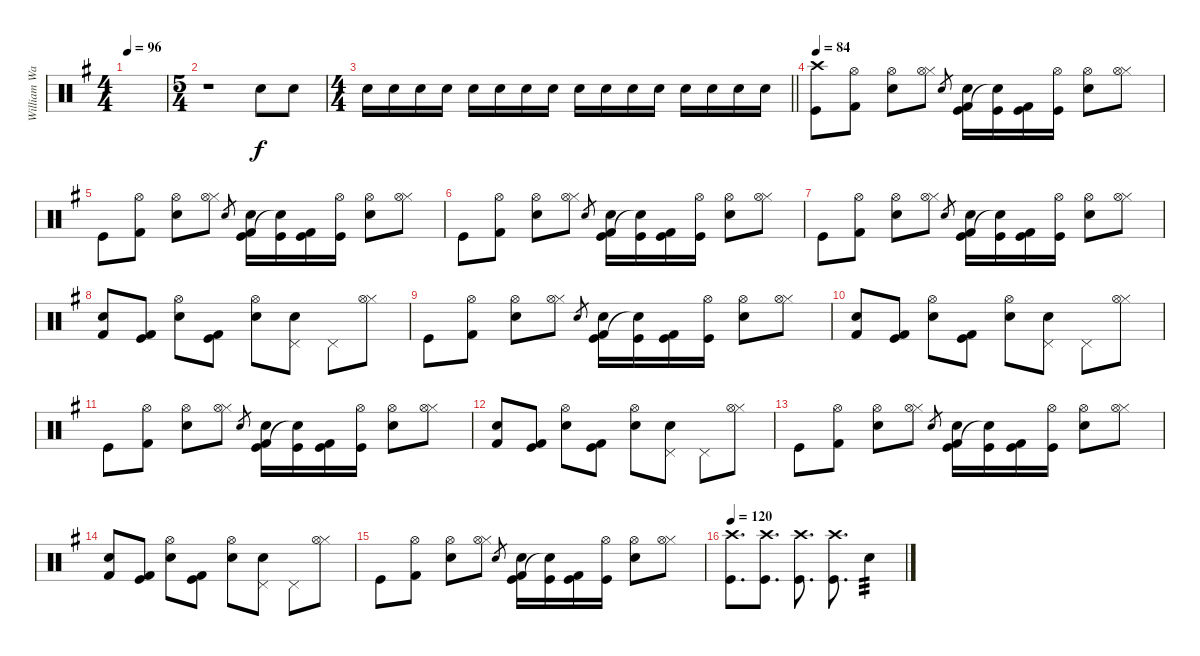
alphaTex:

\track ("William Ward" "William Wa") {instrument percussion}
\staff {score}
\articulation defaults
\ts (4 4)
\tempo 96
\clef neutral
\ks g
|
\ts (5 4)
r.1 "Electric Snare (hit)".8 "Electric Snare (hit)".8 |
\ts (4 4)
\barLineRight lightlight "Electric Snare (hit)".16 "Electric Snare (hit)".16 "Electric Snare (hit)".16 "Electric Snare (hit)".16 "Electric Snare (hit)".16 "Electric Snare (hit)".16 "Electric Snare (hit)".16 "Electric Snare (hit)".16 "Electric Snare (hit)".16 "Electric Snare (hit)".16 "Electric Snare (hit)".16 "Electric Snare (hit)".16 "Electric Snare (hit)".16 "Electric Snare (hit)".16 "Electric Snare (hit)".16 "Electric Snare (hit)".16
|
\tempo 84
("Kick (hit)" "Crash high (hit)").8 ("Kick (hit) 2" "Hi-Hat (open)").8 ("Hi-Hat (open)" "Electric Snare (hit)").8 ("Hi-Hat (closed)" "Hi-Hat (open)").8 "Electric Snare (hit)".8{gr} ("Kick (hit) 2" "Kick (hit)" "Electric Snare (hit)").16 ("Kick (hit)" "Electric Snare (hit)"{t}).16 ("Kick (hit) 2" "Kick (hit)").16 ("Hi-Hat (open)" "Kick (hit)").16 ("Hi-Hat (open)" "Electric Snare (hit)").8 ("Hi-Hat (closed)" "Hi-Hat (open)").8 |
"Kick (hit)".8 ("Kick (hit) 2" "Hi-Hat (open)").8 ("Hi-Hat (open)" "Electric Snare (hit)").8 ("Hi-Hat (closed)" "Hi-Hat (open)").8 "Electric Snare (hit)".8{gr} ("Kick (hit) 2" "Kick (hit)" "Electric Snare (hit)").16 ("Kick (hit)" "Electric Snare (hit)"{t}).16 ("Kick (hit) 2" "Kick (hit)").16 ("Hi-Hat (open)" "Kick (hit)").16 ("Hi-Hat (open)" "Electric Snare (hit)").8 ("Hi-Hat (closed)" "Hi-Hat (open)").8 |
"Kick (hit)".8 ("Kick (hit) 2" "Hi-Hat (open)").8 ("Hi-Hat (open)" "Electric Snare (hit)").8 ("Hi-Hat (closed)" "Hi-Hat (open)").8 "Electric Snare (hit)".8{gr} ("Kick (hit) 2" "Kick (hit)" "Electric Snare (hit)").16 ("Kick (hit)" "Electric Snare (hit)"{t}).16 ("Kick (hit) 2" "Kick (hit)").16 ("Hi-Hat (open)" "Kick (hit)").16 ("Hi-Hat (open)" "Electric Snare (hit)").8 ("Hi-Hat (closed)" "Hi-Hat (open)").8 |
"Kick (hit)".8 ("Kick (hit) 2" "Hi-Hat (open)").8 ("Hi-Hat (open)" "Electric Snare (hit)").8 ("Hi-Hat (closed)" "Hi-Hat (open)").8 "Electric Snare (hit)".8{gr} ("Kick (hit) 2" "Kick (hit)" "Electric Snare (hit)").16 ("Kick (hit)" "Electric Snare (hit)"{t}).16 ("Kick (hit) 2" "Kick (hit)").16 ("Hi-Hat (open)" "Kick (hit)").16 ("Hi-Hat (open)" "Electric Snare (hit)").8 ("Hi-Hat (closed)" "Hi-Hat (open)").8 |
("Kick (hit) 2" "Electric Snare (hit)").8 ("Kick (hit) 2" "Kick (hit)").8 ("Hi-Hat (open)" "Electric Snare (hit)").8 ("Kick (hit) 2" "Kick (hit)").8 ("Hi-Hat (open)" "Electric Snare (hit)").8 ("Pedal Hi-Hat (hit)" "Snare (hit) 2").8 "Pedal Hi-Hat (hit)".8 ("Hi-Hat (closed)" "Hi-Hat (open)").8 |
"Kick (hit)".8 ("Kick (hit) 2" "Hi-Hat (open)").8 ("Hi-Hat (open)" "Electric Snare (hit)").8 ("Hi-Hat (closed)" "Hi-Hat (open)").8 "Electric Snare (hit)".8{gr} ("Kick (hit) 2" "Kick (hit)" "Electric Snare (hit)").16 ("Kick (hit)" "Electric Snare (hit)"{t}).16 ("Kick (hit) 2" "Kick (hit)").16 ("Hi-Hat (open)" "Kick (hit)").16 ("Hi-Hat (open)" "Electric Snare (hit)").8 ("Hi-Hat (closed)" "Hi-Hat (open)").8 |
("Kick (hit) 2" "Electric Snare (hit)").8 ("Kick (hit) 2" "Kick (hit)").8 ("Hi-Hat (open)" "Electric Snare (hit)").8 ("Kick (hit) 2" "Kick (hit)").8 ("Hi-Hat (open)" "Electric Snare (hit)").8 ("Pedal Hi-Hat (hit)" "Snare (hit) 2").8 "Pedal Hi-Hat (hit)".8 ("Hi-Hat (closed)" "Hi-Hat (open)").8 |
"Kick (hit)".8 ("Kick (hit) 2" "Hi-Hat (open)").8 ("Hi-Hat (open)" "Electric Snare (hit)").8 ("Hi-Hat (closed)" "Hi-Hat (open)").8 "Electric Snare (hit)".8{gr} ("Kick (hit) 2" "Kick (hit)" "Electric Snare (hit)").16 ("Kick (hit)" "Electric Snare (hit)"{t}).16 ("Kick (hit) 2" "Kick (hit)").16 ("Hi-Hat (open)" "Kick (hit)").16 ("Hi-Hat (open)" "Electric Snare (hit)").8 ("Hi-Hat (closed)" "Hi-Hat (open)").8 |
("Kick (hit) 2" "Electric Snare (hit)").8 ("Kick (hit) 2" "Kick (hit)").8 ("Hi-Hat (open)" "Electric Snare (hit)").8 ("Kick (hit) 2" "Kick (hit)").8 ("Hi-Hat (open)" "Electric Snare (hit)").8 ("Pedal Hi-Hat (hit)" "Snare (hit) 2").8 "Pedal Hi-Hat (hit)".8 ("Hi-Hat (closed)" "Hi-Hat (open)").8 |
"Kick (hit)".8 ("Kick (hit) 2" "Hi-Hat (open)").8 ("Hi-Hat (open)" "Electric Snare (hit)").8 ("Hi-Hat (closed)" "Hi-Hat (open)").8 "Electric Snare (hit)".8{gr} ("Kick (hit) 2" "Kick (hit)" "Electric Snare (hit)").16 ("Kick (hit)" "Electric Snare (hit)"{t}).16 ("Kick (hit) 2" "Kick (hit)").16 ("Hi-Hat (open)" "Kick (hit)").16 ("Hi-Hat (open)" "Electric Snare (hit)").8 ("Hi-Hat (closed)" "Hi-Hat (open)").8 |
("Kick (hit) 2" "Electric Snare (hit)").8 ("Kick (hit) 2" "Kick (hit)").8 ("Hi-Hat (open)" "Electric Snare (hit)").8 ("Kick (hit) 2" "Kick (hit)").8 ("Hi-Hat (open)" "Electric Snare (hit)").8 ("Pedal Hi-Hat (hit)" "Snare (hit) 2").8 "Pedal Hi-Hat (hit)".8 ("Hi-Hat (closed)" "Hi-Hat (open)").8 |
"Kick (hit)".8 ("Kick (hit) 2" "Hi-Hat (open)").8 ("Hi-Hat (open)" "Electric Snare (hit)").8 ("Hi-Hat (closed)" "Hi-Hat (open)").8 "Electric Snare (hit)".8{gr} ("Kick (hit) 2" "Kick (hit)" "Electric Snare (hit)").16 ("Kick (hit)" "Electric Snare (hit)"{t}).16 ("Kick (hit) 2" "Kick (hit)").16 ("Hi-Hat (open)" "Kick (hit)").16 ("Hi-Hat (open)" "Electric Snare (hit)").8 ("Hi-Hat (closed)" "Hi-Hat (open)").8 |
\tempo 120
("Kick (hit)" "Crash high (hit)").8{d} ("Kick (hit)" "Crash high (hit)").8{d} ("Kick (hit)" "Crash high (hit)").8{d} ("Kick (hit)" "Crash high (hit)").8{d} "Electric Snare (hit)".4{tp 3}
